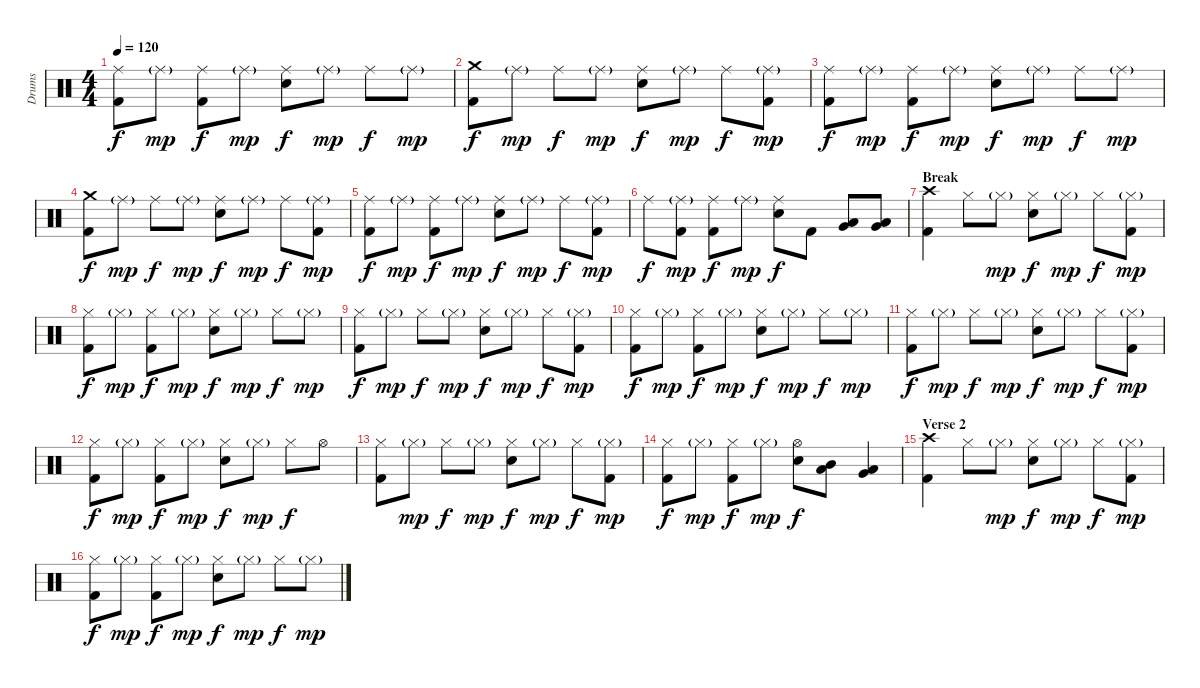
\track ("Drums" "Drums") {instrument percussion}
\staff {score}
\articulation defaults
\ts (4 4)
\tempo 120
\clef neutral
\ks c
("Ride (middle)" "Kick (hit) 2").8{dy f} "Ride (middle)"{g}.8{dy mp} ("Ride (middle)" "Kick (hit) 2").8{dy f} "Ride (middle)"{g}.8{dy mp} ("Ride (middle)" "Snare (hit) 2").8{dy f} "Ride (middle)"{g}.8{dy mp} "Ride (middle)".8{dy f} "Ride (middle)"{g}.8{dy mp} |
("Crash medium (hit)" "Kick (hit) 2").8{dy f} "Ride (middle)"{g}.8{dy mp} "Ride (middle)".8{dy f} "Ride (middle)"{g}.8{dy mp} ("Ride (middle)" "Snare (hit) 2").8{dy f} "Ride (middle)"{g}.8{dy mp} "Ride (middle)".8{dy f} ("Ride (middle)"{g} "Kick (hit) 2").8{dy mp} |
("Ride (middle)" "Kick (hit) 2").8{dy f} "Ride (middle)"{g}.8{dy mp} ("Ride (middle)" "Kick (hit) 2").8{dy f} "Ride (middle)"{g}.8{dy mp} ("Ride (middle)" "Snare (hit) 2").8{dy f} "Ride (middle)"{g}.8{dy mp} "Ride (middle)".8{dy f} "Ride (middle)"{g}.8{dy mp} |
("Crash medium (hit)" "Kick (hit) 2").8{dy f} "Ride (middle)"{g}.8{dy mp} "Ride (middle)".8{dy f} "Ride (middle)"{g}.8{dy mp} ("Ride (middle)" "Snare (hit) 2").8{dy f} "Ride (middle)"{g}.8{dy mp} "Ride (middle)".8{dy f} ("Ride (middle)"{g} "Kick (hit) 2").8{dy mp} |
("Ride (middle)" "Kick (hit) 2").8{dy f} "Ride (middle)"{g}.8{dy mp} ("Ride (middle)" "Kick (hit) 2").8{dy f} "Ride (middle)"{g}.8{dy mp} ("Ride (middle)" "Snare (hit) 2").8{dy f} "Ride (middle)"{g}.8{dy mp} "Ride (middle)".8{dy f} ("Ride (middle)"{g} "Kick (hit) 2").8{dy mp} |
"Ride (middle)".8{dy f} ("Ride (middle)"{g} "Kick (hit) 2").8{dy mp} ("Ride (middle)" "Kick (hit) 2").8{dy f} "Ride (middle)"{g}.8{dy mp} ("Ride (middle)" "Snare (hit) 2").8{dy f} "Kick (hit) 2".8 ("Low Tom (hit)" "Very Low Tom (hit)").8 ("Low Tom (hit)" "Very Low Tom (hit)").8 |
\section ("" "Break")
("Crash high (hit)" "Kick (hit) 2").4 "Hi-Hat (closed)".8 "Hi-Hat (closed)"{g}.8{dy mp} ("Hi-Hat (closed)" "Snare (hit) 2").8{dy f} "Hi-Hat (closed)"{g}.8{dy mp} "Hi-Hat (closed)".8{dy f} ("Hi-Hat (closed)"{g} "Kick (hit) 2").8{dy mp} |
("Hi-Hat (closed)" "Kick (hit) 2").8{dy f} "Hi-Hat (closed)"{g}.8{dy mp} ("Hi-Hat (closed)" "Kick (hit) 2").8{dy f} "Hi-Hat (closed)"{g}.8{dy mp} ("Hi-Hat (closed)" "Snare (hit) 2").8{dy f} "Hi-Hat (closed)"{g}.8{dy mp} "Hi-Hat (closed)".8{dy f} "Hi-Hat (closed)"{g}.8{dy mp} |
("Hi-Hat (closed)" "Kick (hit) 2").8{dy f} "Hi-Hat (closed)"{g}.8{dy mp} "Hi-Hat (closed)".8{dy f} "Hi-Hat (closed)"{g}.8{dy mp} ("Hi-Hat (closed)" "Snare (hit) 2").8{dy f} "Hi-Hat (closed)"{g}.8{dy mp} "Hi-Hat (closed)".8{dy f} ("Hi-Hat (closed)"{g} "Kick (hit) 2").8{dy mp} |
("Hi-Hat (closed)" "Kick (hit) 2").8{dy f} "Hi-Hat (closed)"{g}.8{dy mp} ("Hi-Hat (closed)" "Kick (hit) 2").8{dy f} "Hi-Hat (closed)"{g}.8{dy mp} ("Hi-Hat (closed)" "Snare (hit) 2").8{dy f} "Hi-Hat (closed)"{g}.8{dy mp} "Hi-Hat (closed)".8{dy f} "Hi-Hat (closed)"{g}.8{dy mp} |
("Hi-Hat (closed)" "Kick (hit) 2").8{dy f} "Hi-Hat (closed)"{g}.8{dy mp} "Hi-Hat (closed)".8{dy f} "Hi-Hat (closed)"{g}.8{dy mp} ("Hi-Hat (closed)" "Snare (hit) 2").8{dy f} "Hi-Hat (closed)"{g}.8{dy mp} "Hi-Hat (closed)".8{dy f} ("Hi-Hat (closed)"{g} "Kick (hit) 2").8{dy mp} |
("Hi-Hat (closed)" "Kick (hit) 2").8{dy f} "Hi-Hat (closed)"{g}.8{dy mp} ("Hi-Hat (closed)" "Kick (hit) 2").8{dy f} "Hi-Hat (closed)"{g}.8{dy mp} ("Hi-Hat (closed)" "Snare (hit) 2").8{dy f} "Hi-Hat (closed)"{g}.8{dy mp} "Hi-Hat (closed)".8{dy f} "Hi-Hat (open)".8 |
("Hi-Hat (closed)" "Kick (hit) 2").8 "Hi-Hat (closed)"{g}.8{dy mp} "Hi-Hat (closed)".8{dy f} "Hi-Hat (closed)"{g}.8{dy mp} ("Hi-Hat (closed)" "Snare (hit) 2").8{dy f} "Hi-Hat (closed)"{g}.8{dy mp} "Hi-Hat (closed)".8{dy f} ("Hi-Hat (closed)"{g} "Kick (hit) 2").8{dy mp} |
("Hi-Hat (closed)" "Kick (hit) 2").8{dy f} "Hi-Hat (closed)"{g}.8{dy mp} ("Hi-Hat (closed)" "Kick (hit) 2").8{dy f} "Hi-Hat (closed)"{g}.8{dy mp} ("Hi-Hat (open)" "Snare (hit) 2").8{dy f} ("Mid Tom (hit)" "Low Tom (hit)").8 ("Low Tom (hit)" "Very Low Tom (hit)").4 |
\section ("" "Verse 2")
("Crash high (hit)" "Kick (hit) 2").4 "Hi-Hat (closed)".8 "Hi-Hat (closed)"{g}.8{dy mp} ("Hi-Hat (closed)" "Snare (hit) 2").8{dy f} "Hi-Hat (closed)"{g}.8{dy mp} "Hi-Hat (closed)".8{dy f} ("Hi-Hat (closed)"{g} "Kick (hit) 2").8{dy mp} |
("Hi-Hat (closed)" "Kick (hit) 2").8{dy f} "Hi-Hat (closed)"{g}.8{dy mp} ("Hi-Hat (closed)" "Kick (hit) 2").8{dy f} "Hi-Hat (closed)"{g}.8{dy mp} ("Hi-Hat (closed)" "Snare (hit) 2").8{dy f} "Hi-Hat (closed)"{g}.8{dy mp} "Hi-Hat (closed)".8{dy f} "Hi-Hat (closed)"{g}.8{dy mp}
